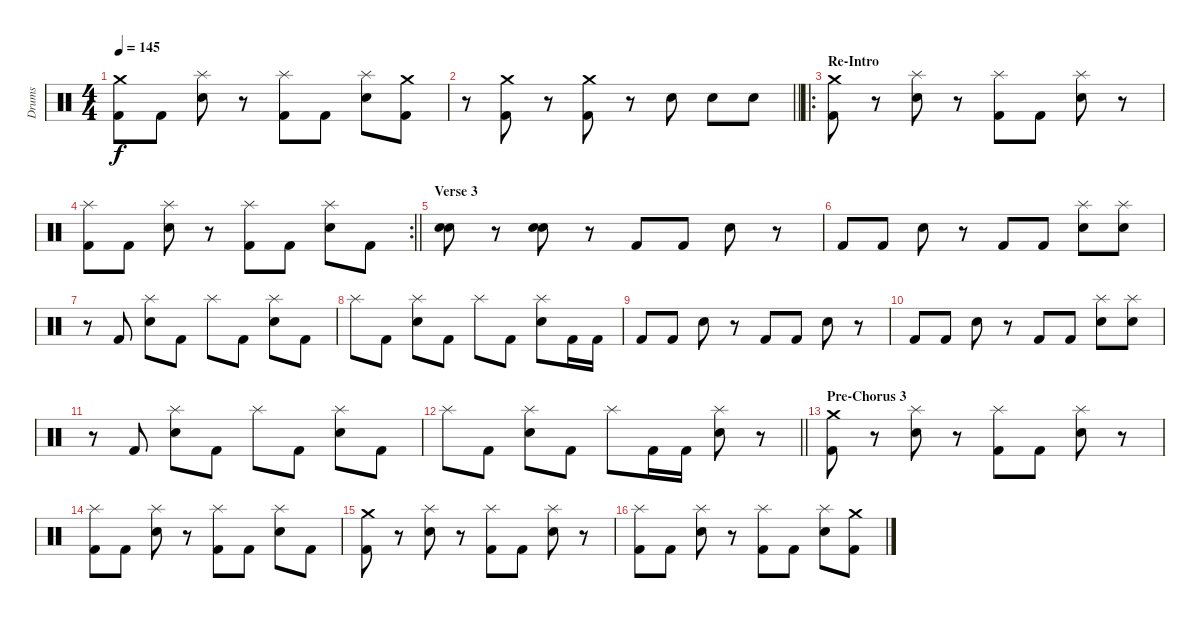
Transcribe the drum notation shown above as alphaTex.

\track ("Drums" "Drums") {instrument percussion}
\staff {score}
\articulation defaults
\ts (4 4)
\tempo 145
\clef neutral
\ks c
("Crash medium (hit)" "Kick (hit) 2").8{dy f} "Kick (hit) 2".8 ("Snare (hit) 2" "Splash (hit)").8 r.8 ("Splash (hit)" "Kick (hit) 2").8 "Kick (hit) 2".8 ("Splash (hit)" "Snare (hit) 2").8 ("Kick (hit) 2" "Crash medium (hit)").8 |
\barLineRight lightlight
r.8 ("Crash medium (hit)" "Kick (hit) 2").8 r.8 ("Kick (hit) 2" "Crash medium (hit)").8 r.8 "Snare (hit) 2".8 "Snare (hit) 2".8 "Snare (hit) 2".8 |
\ro
\section ("" "Re-Intro")
("Crash medium (hit)" "Kick (hit) 2").8 r.8 ("Splash (hit)" "Snare (hit) 2").8 r.8 ("Splash (hit)" "Kick (hit) 2").8 "Kick (hit) 2".8 ("Splash (hit)" "Snare (hit) 2").8 r.8 |
\rc 2
\barLineRight lightlight
("Splash (hit)" "Kick (hit) 2").8 "Kick (hit) 2".8 ("Splash (hit)" "Snare (hit) 2").8 r.8 ("Splash (hit)" "Kick (hit) 2").8 "Kick (hit) 2".8 ("Splash (hit)" "Snare (hit) 2").8 "Kick (hit) 2".8 |
\section ("" "Verse 3")
("Snare (hit) 2" "Electric Snare (hit)").8 r.8 ("Snare (hit) 2" "Electric Snare (hit)").8 r.8 "Kick (hit) 2".8 "Kick (hit) 2".8 "Snare (hit) 2".8 r.8 |
"Kick (hit) 2".8 "Kick (hit) 2".8 "Snare (hit) 2".8 r.8 "Kick (hit) 2".8 "Kick (hit) 2".8 ("Splash (hit)" "Snare (hit) 2").8 ("Splash (hit)" "Snare (hit) 2").8 |
r.8 "Kick (hit) 2".8 ("Snare (hit) 2" "Splash (hit)").8 "Kick (hit) 2".8 "Splash (hit)".8 "Kick (hit) 2".8 ("Snare (hit) 2" "Splash (hit)").8 "Kick (hit) 2".8 |
"Splash (hit)".8 "Kick (hit) 2".8 ("Snare (hit) 2" "Splash (hit)").8 "Kick (hit) 2".8 "Splash (hit)".8 "Kick (hit) 2".8 ("Splash (hit)" "Snare (hit) 2").8 "Kick (hit) 2".16 "Kick (hit) 2".16 |
"Kick (hit) 2".8 "Kick (hit) 2".8 "Snare (hit) 2".8 r.8 "Kick (hit) 2".8 "Kick (hit) 2".8 "Snare (hit) 2".8 r.8 |
"Kick (hit) 2".8 "Kick (hit) 2".8 "Snare (hit) 2".8 r.8 "Kick (hit) 2".8 "Kick (hit) 2".8 ("Splash (hit)" "Snare (hit) 2").8 ("Splash (hit)" "Snare (hit) 2").8 |
r.8 "Kick (hit) 2".8 ("Snare (hit) 2" "Splash (hit)").8 "Kick (hit) 2".8 "Splash (hit)".8 "Kick (hit) 2".8 ("Snare (hit) 2" "Splash (hit)").8 "Kick (hit) 2".8 |
\barLineRight lightlight "Splash (hit)".8 "Kick (hit) 2".8
("Snare (hit) 2" "Splash (hit)").8 "Kick (hit) 2".8 "Splash (hit)".8 "Kick (hit) 2".16 "Kick (hit) 2".16 ("Splash (hit)" "Snare (hit) 2").8 r.8 |
\section ("" "Pre-Chorus 3")
("Crash medium (hit)" "Kick (hit) 2").8 r.8 ("Splash (hit)" "Snare (hit) 2").8 r.8 ("Splash (hit)" "Kick (hit) 2").8 "Kick (hit) 2".8 ("Splash (hit)" "Snare (hit) 2").8 r.8 |
("Splash (hit)" "Kick (hit) 2").8 "Kick (hit) 2".8 ("Splash (hit)" "Snare (hit) 2").8 r.8 ("Splash (hit)" "Kick (hit) 2").8 "Kick (hit) 2".8 ("Splash (hit)" "Snare (hit) 2").8 "Kick (hit) 2".8 |
("Crash medium (hit)" "Kick (hit) 2").8 r.8 ("Splash (hit)" "Snare (hit) 2").8 r.8 ("Splash (hit)" "Kick (hit) 2").8 "Kick (hit) 2".8 ("Splash (hit)" "Snare (hit) 2").8 r.8 |
("Splash (hit)" "Kick (hit) 2").8 "Kick (hit) 2".8 ("Splash (hit)" "Snare (hit) 2").8 r.8 ("Splash (hit)" "Kick (hit) 2").8 "Kick (hit) 2".8 ("Splash (hit)" "Snare (hit) 2").8 ("Crash medium (hit)" "Kick (hit) 2").8
